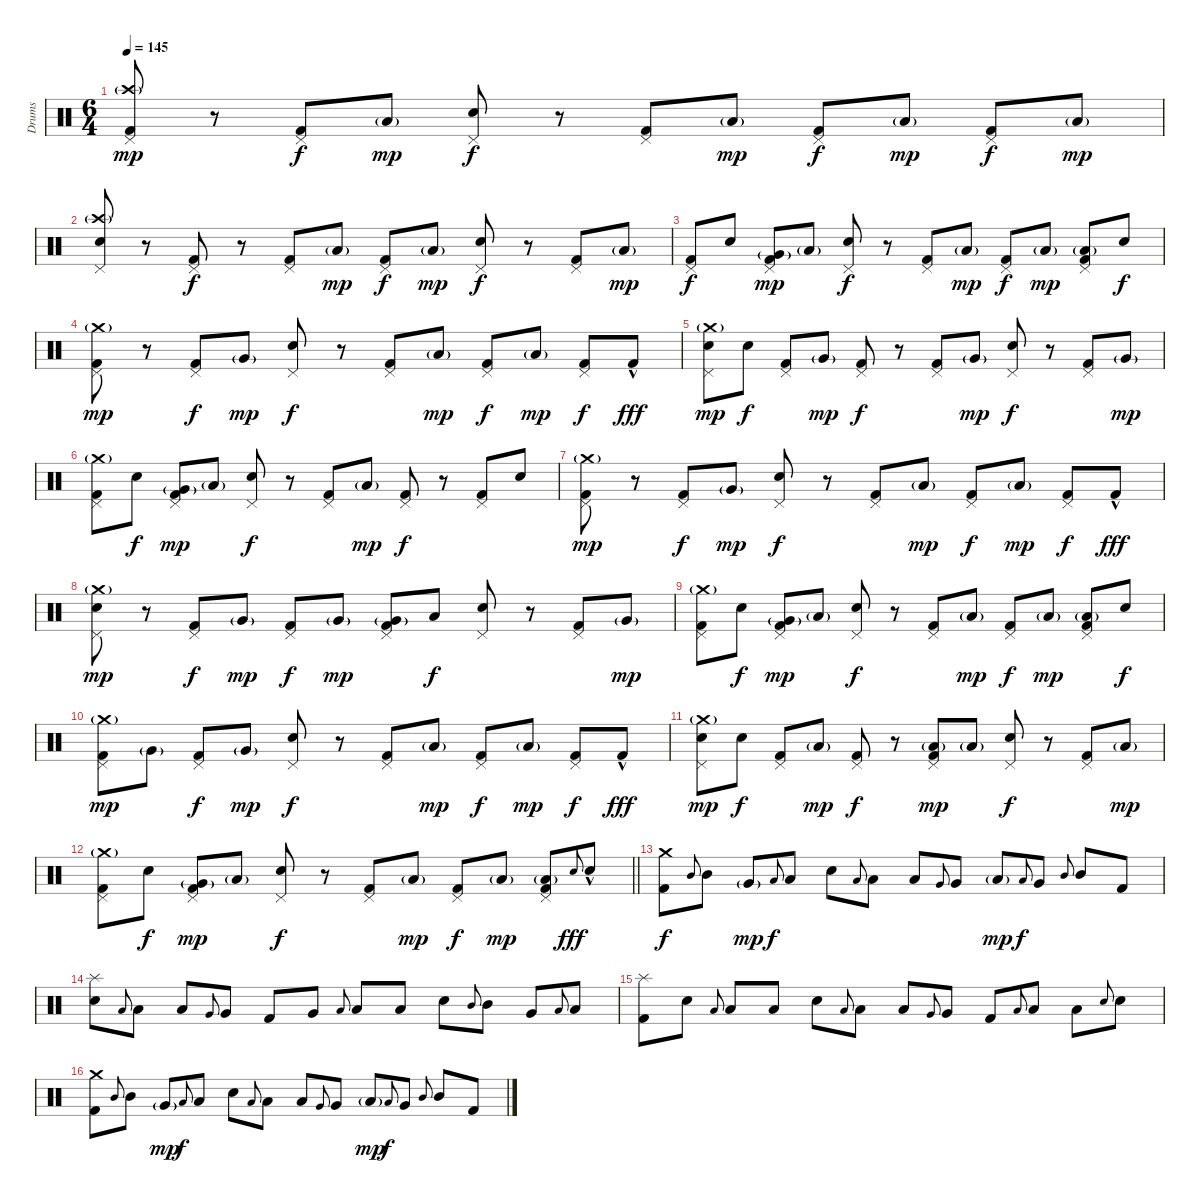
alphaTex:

\track ("Drums" "Drums") {instrument percussion}
\staff {score}
\articulation defaults
\ts (6 4)
\section ("" "")
\tempo 145
\clef neutral
\ks c
("Pedal Hi-Hat (hit)" "Crash high (hit)"{g} "Kick (hit) 2").8{dy mp volume 9} r.8 ("Pedal Hi-Hat (hit)" "Kick (hit) 2").8{dy f} "Low Tom (hit)"{g}.8{dy mp} ("Pedal Hi-Hat (hit)" "Electric Snare (hit)").8{dy f} r.8 ("Pedal Hi-Hat (hit)" "Kick (hit) 2").8 "Low Floor Tom (hit)"{g}.8{dy mp} ("Pedal Hi-Hat (hit)" "Kick (hit) 2").8{dy f} "Low Floor Tom (hit)"{g}.8{dy mp} ("Pedal Hi-Hat (hit)" "Kick (hit) 2").8{dy f} "Low Tom (hit)"{g}.8{dy mp} |
("Pedal Hi-Hat (hit)" "Crash high (hit)"{g} "Electric Snare (hit)").8 r.8 ("Pedal Hi-Hat (hit)" "Kick (hit) 2").8{dy f} r.8 ("Pedal Hi-Hat (hit)" "Kick (hit) 2").8 "Low Floor Tom (hit)"{g}.8{dy mp} ("Pedal Hi-Hat (hit)" "Kick (hit) 2").8{dy f} "Low Floor Tom (hit)"{g}.8{dy mp} ("Pedal Hi-Hat (hit)" "Electric Snare (hit)").8{dy f} r.8 ("Pedal Hi-Hat (hit)" "Kick (hit) 2").8 "Low Tom (hit)"{g}.8{dy mp} |
("Pedal Hi-Hat (hit)" "Kick (hit) 2").8{dy f} "Electric Snare (hit)".8 ("Pedal Hi-Hat (hit)" "Very Low Tom (hit)"{g} "Kick (hit) 2").8{dy mp} "Low Floor Tom (hit)"{g}.8 ("Pedal Hi-Hat (hit)" "Electric Snare (hit)").8{dy f} r.8 ("Pedal Hi-Hat (hit)" "Kick (hit) 2").8 "Low Tom (hit)"{g}.8{dy mp} ("Pedal Hi-Hat (hit)" "Kick (hit) 2").8{dy f} "Low Tom (hit)"{g}.8{dy mp} ("Pedal Hi-Hat (hit)" "Low Tom (hit)"{g} "Kick (hit) 2").8 "Electric Snare (hit)".8{dy f} |
("Pedal Hi-Hat (hit)" "Crash medium (hit)"{g} "Kick (hit) 2").8{dy mp} r.8 ("Pedal Hi-Hat (hit)" "Kick (hit) 2").8{dy f} "Very Low Tom (hit)"{g}.8{dy mp} ("Pedal Hi-Hat (hit)" "Electric Snare (hit)").8{dy f} r.8 ("Pedal Hi-Hat (hit)" "Kick (hit) 2").8 "Low Tom (hit)"{g}.8{dy mp} ("Pedal Hi-Hat (hit)" "Kick (hit) 2").8{dy f} "Low Tom (hit)"{g}.8{dy mp} ("Pedal Hi-Hat (hit)" "Kick (hit) 2").8{dy f} "Kick (hit) 2"{hac}.8{dy fff} |
("Pedal Hi-Hat (hit)" "Crash medium (hit)"{g} "Electric Snare (hit)").8{dy mp} "Electric Snare (hit)".8{dy f} ("Pedal Hi-Hat (hit)" "Kick (hit) 2").8 "Very Low Tom (hit)"{g}.8{dy mp} ("Pedal Hi-Hat (hit)" "Kick (hit) 2").8{dy f} r.8 ("Pedal Hi-Hat (hit)" "Kick (hit) 2").8 "Very Low Tom (hit)"{g}.8{dy mp} ("Pedal Hi-Hat (hit)" "Electric Snare (hit)").8{dy f} r.8 ("Pedal Hi-Hat (hit)" "Kick (hit) 2").8 "Very Low Tom (hit)"{g}.8{dy mp} |
("Pedal Hi-Hat (hit)" "Crash medium (hit)"{g} "Kick (hit) 2").8 "Electric Snare (hit)".8{dy f} ("Pedal Hi-Hat (hit)" "Very Low Tom (hit)"{g} "Kick (hit) 2").8{dy mp} "Low Floor Tom (hit)"{g}.8 ("Pedal Hi-Hat (hit)" "Electric Snare (hit)").8{dy f} r.8 ("Pedal Hi-Hat (hit)" "Kick (hit) 2").8 "Low Tom (hit)"{g}.8{dy mp} ("Pedal Hi-Hat (hit)" "Kick (hit) 2").8{dy f} r.8 ("Pedal Hi-Hat (hit)" "Kick (hit) 2").8 "Electric Snare (hit)".8 |
("Pedal Hi-Hat (hit)" "Crash medium (hit)"{g} "Kick (hit) 2").8{dy mp} r.8 ("Pedal Hi-Hat (hit)" "Kick (hit) 2").8{dy f} "Very Low Tom (hit)"{g}.8{dy mp} ("Pedal Hi-Hat (hit)" "Electric Snare (hit)").8{dy f} r.8 ("Pedal Hi-Hat (hit)" "Kick (hit) 2").8 "Low Tom (hit)"{g}.8{dy mp} ("Pedal Hi-Hat (hit)" "Kick (hit) 2").8{dy f} "Low Tom (hit)"{g}.8{dy mp} ("Pedal Hi-Hat (hit)" "Kick (hit) 2").8{dy f} "Kick (hit) 2"{hac}.8{dy fff} |
("Pedal Hi-Hat (hit)" "Crash medium (hit)"{g} "Electric Snare (hit)").8{dy mp} r.8 ("Pedal Hi-Hat (hit)" "Kick (hit) 2").8{dy f} "Very Low Tom (hit)"{g}.8{dy mp} ("Pedal Hi-Hat (hit)" "Kick (hit) 2").8{dy f} "Very Low Tom (hit)"{g}.8{dy mp} ("Pedal Hi-Hat (hit)" "Very Low Tom (hit)"{g} "Kick (hit) 2").8 "Low Floor Tom (hit)".8{dy f} ("Pedal Hi-Hat (hit)" "Electric Snare (hit)").8 r.8 ("Pedal Hi-Hat (hit)" "Kick (hit) 2").8 "Very Low Tom (hit)"{g}.8{dy mp} |
("Pedal Hi-Hat (hit)" "Crash medium (hit)"{g} "Kick (hit) 2").8 "Electric Snare (hit)".8{dy f} ("Pedal Hi-Hat (hit)" "Very Low Tom (hit)"{g} "Kick (hit) 2").8{dy mp} "Low Floor Tom (hit)"{g}.8 ("Pedal Hi-Hat (hit)" "Electric Snare (hit)").8{dy f} r.8 ("Pedal Hi-Hat (hit)" "Kick (hit) 2").8 "Low Tom (hit)"{g}.8{dy mp} ("Pedal Hi-Hat (hit)" "Kick (hit) 2").8{dy f} "Low Tom (hit)"{g}.8{dy mp} ("Pedal Hi-Hat (hit)" "Low Tom (hit)"{g} "Kick (hit) 2").8 "Electric Snare (hit)".8{dy f} |
("Pedal Hi-Hat (hit)" "Crash medium (hit)"{g} "Kick (hit) 2").8{dy mp volume 12} "Very Low Tom (hit)"{g}.8 ("Pedal Hi-Hat (hit)" "Kick (hit) 2").8{dy f} "Very Low Tom (hit)"{g}.8{dy mp} ("Pedal Hi-Hat (hit)" "Electric Snare (hit)").8{dy f} r.8 ("Pedal Hi-Hat (hit)" "Kick (hit) 2").8 "Low Tom (hit)"{g}.8{dy mp} ("Pedal Hi-Hat (hit)" "Kick (hit) 2").8{dy f} "Low Tom (hit)"{g}.8{dy mp} ("Pedal Hi-Hat (hit)" "Kick (hit) 2").8{dy f} "Kick (hit) 2"{hac}.8{dy fff} |
("Pedal Hi-Hat (hit)" "Crash medium (hit)"{g} "Electric Snare (hit)").8{dy mp} "Electric Snare (hit)".8{dy f} ("Pedal Hi-Hat (hit)" "Kick (hit) 2").8 "Low Tom (hit)"{g}.8{dy mp} ("Pedal Hi-Hat (hit)" "Kick (hit) 2").8{dy f} r.8 ("Pedal Hi-Hat (hit)" "Low Tom (hit)"{g} "Kick (hit) 2").8{dy mp} "Low Tom (hit)"{g}.8 ("Pedal Hi-Hat (hit)" "Electric Snare (hit)").8{dy f} r.8 ("Pedal Hi-Hat (hit)" "Kick (hit) 2").8 "Low Tom (hit)"{g}.8{dy mp} |
\barLineRight lightlight
("Pedal Hi-Hat (hit)" "Crash medium (hit)"{g} "Kick (hit) 2").8{volume 14} "Electric Snare (hit)".8{dy f} ("Pedal Hi-Hat (hit)" "Very Low Tom (hit)"{g} "Kick (hit) 2").8{dy mp} "Low Floor Tom (hit)"{g}.8 ("Pedal Hi-Hat (hit)" "Electric Snare (hit)").8{dy f} r.8 ("Pedal Hi-Hat (hit)" "Kick (hit) 2").8 "Low Tom (hit)"{g}.8{dy mp} ("Pedal Hi-Hat (hit)" "Kick (hit) 2").8{dy f} "Low Tom (hit)"{g}.8{dy mp} ("Pedal Hi-Hat (hit)" "Low Tom (hit)"{g} "Kick (hit) 2").8 "Electric Snare (hit)".8{gr onbeat dy fff} "Electric Snare (hit)"{hac}.8 |
\section ("" "")
("Crash medium (hit)" "Kick (hit) 2").8{dy f volume 16} "Mid Tom (hit)".8{gr onbeat} "Mid Tom (hit)".8 "Very Low Tom (hit)"{g}.8{dy mp} "Low Tom (hit)".8{gr onbeat dy f} "Low Tom (hit)".8 "Electric Snare (hit)".8 "Low Tom (hit)".8{gr onbeat} "Low Tom (hit)".8 "Low Floor Tom (hit)".8 "Very Low Tom (hit)".8{gr onbeat} "Very Low Tom (hit)".8 "Low Floor Tom (hit)"{g}.8{dy mp} "Low Tom (hit)".8{gr onbeat dy f} "Very Low Tom (hit)".8 "Mid Tom (hit)".8{gr onbeat} "Mid Tom (hit)".8 "Kick (hit) 2".8 |
("Splash (hit)" "Electric Snare (hit)").8 "Low Tom (hit)".8{gr onbeat} "Low Tom (hit)".8 "Low Floor Tom (hit)".8 "Very Low Tom (hit)".8{gr onbeat} "Very Low Tom (hit)".8 "Kick (hit) 2".8 "Very Low Tom (hit)".8 "Low Tom (hit)".8{gr onbeat} "Low Tom (hit)".8 "Low Floor Tom (hit)".8 "Electric Snare (hit)".8 "Mid Tom (hit)".8{gr onbeat} "Mid Tom (hit)".8 "Very Low Tom (hit)".8 "Low Tom (hit)".8{gr onbeat} "Low Tom (hit)".8 |
("Splash (hit)" "Kick (hit) 2").8 "Electric Snare (hit)".8 "Low Tom (hit)".8{gr onbeat} "Low Tom (hit)".8 "Low Floor Tom (hit)".8 "Electric Snare (hit)".8 "Low Tom (hit)".8{gr onbeat} "Low Tom (hit)".8 "Low Floor Tom (hit)".8 "Very Low Tom (hit)".8{gr onbeat} "Very Low Tom (hit)".8 "Kick (hit) 2".8 "Low Tom (hit)".8{gr onbeat} "Low Tom (hit)".8 "Low Floor Tom (hit)".8 "Electric Snare (hit)".8{gr onbeat} "Electric Snare (hit)".8 |
("Crash medium (hit)" "Kick (hit) 2").8 "Mid Tom (hit)".8{gr onbeat} "Mid Tom (hit)".8 "Very Low Tom (hit)"{g}.8{dy mp} "Low Tom (hit)".8{gr onbeat dy f} "Low Tom (hit)".8 "Electric Snare (hit)".8 "Low Tom (hit)".8{gr onbeat} "Low Tom (hit)".8 "Low Floor Tom (hit)".8 "Very Low Tom (hit)".8{gr onbeat} "Very Low Tom (hit)".8 "Low Floor Tom (hit)"{g}.8{dy mp} "Low Tom (hit)".8{gr onbeat dy f} "Very Low Tom (hit)".8 "Mid Tom (hit)".8{gr onbeat} "Mid Tom (hit)".8 "Kick (hit) 2".8
